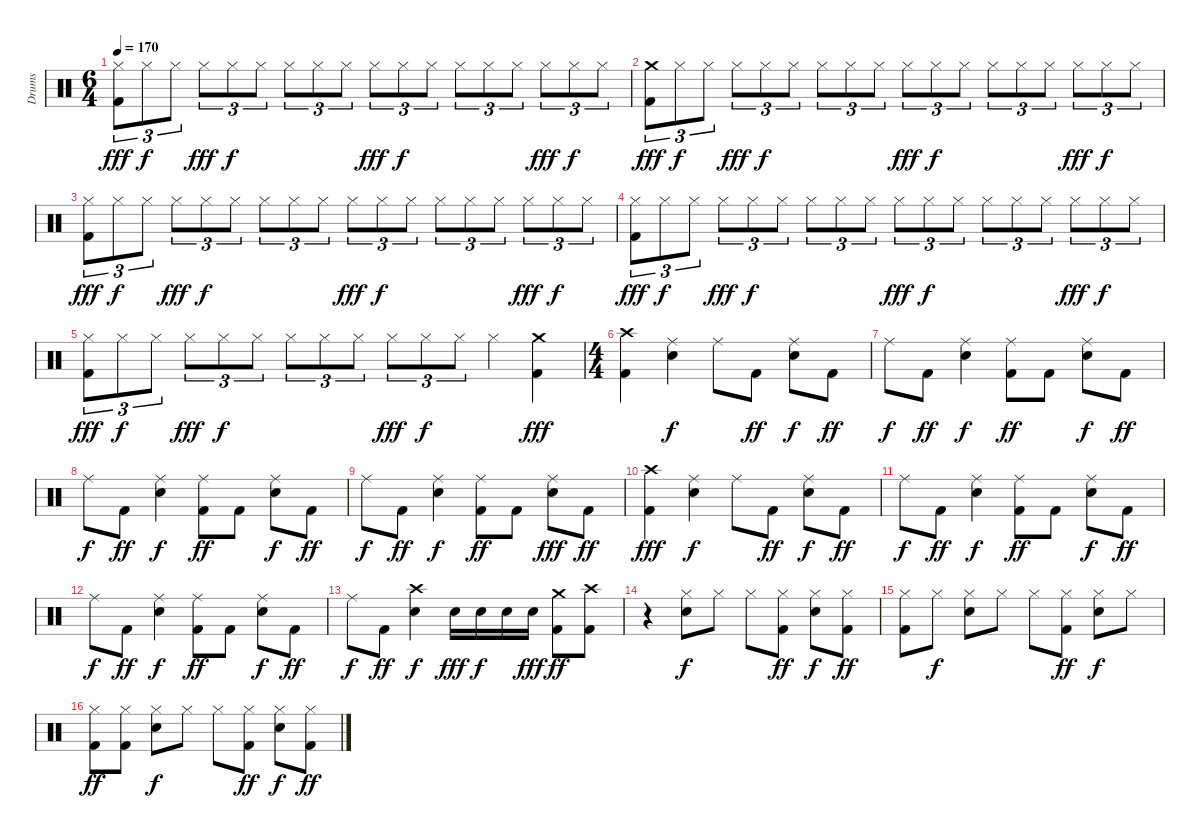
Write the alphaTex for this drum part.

\track ("Drums" "Drums") {instrument percussion}
\staff {score}
\articulation defaults
\ts (6 4)
\tempo 170
\clef neutral
\ks c
("Kick (hit) 2" "Hi-Hat (closed)").8{tu (3 2) dy fff} "Hi-Hat (closed)".8{tu (3 2) dy f} "Hi-Hat (closed)".8{tu (3 2)} "Hi-Hat (closed)".8{tu (3 2) dy fff} "Hi-Hat (closed)".8{tu (3 2) dy f} "Hi-Hat (closed)".8{tu (3 2)} "Hi-Hat (closed)".8{tu (3 2)} "Hi-Hat (closed)".8{tu (3 2)} "Hi-Hat (closed)".8{tu (3 2)} "Hi-Hat (closed)".8{tu (3 2) dy fff} "Hi-Hat (closed)".8{tu (3 2) dy f} "Hi-Hat (closed)".8{tu (3 2)} "Hi-Hat (closed)".8{tu (3 2)} "Hi-Hat (closed)".8{tu (3 2)} "Hi-Hat (closed)".8{tu (3 2)} "Hi-Hat (closed)".8{tu (3 2) dy fff} "Hi-Hat (closed)".8{tu (3 2) dy f} "Hi-Hat (closed)".8{tu (3 2)} |
("Kick (hit) 2" "Crash medium (hit)").8{tu (3 2) dy fff} "Hi-Hat (closed)".8{tu (3 2) dy f} "Hi-Hat (closed)".8{tu (3 2)} "Hi-Hat (closed)".8{tu (3 2) dy fff} "Hi-Hat (closed)".8{tu (3 2) dy f} "Hi-Hat (closed)".8{tu (3 2)} "Hi-Hat (closed)".8{tu (3 2)} "Hi-Hat (closed)".8{tu (3 2)} "Hi-Hat (closed)".8{tu (3 2)} "Hi-Hat (closed)".8{tu (3 2) dy fff} "Hi-Hat (closed)".8{tu (3 2) dy f} "Hi-Hat (closed)".8{tu (3 2)} "Hi-Hat (closed)".8{tu (3 2)} "Hi-Hat (closed)".8{tu (3 2)} "Hi-Hat (closed)".8{tu (3 2)} "Hi-Hat (closed)".8{tu (3 2) dy fff} "Hi-Hat (closed)".8{tu (3 2) dy f} "Hi-Hat (closed)".8{tu (3 2)} |
("Kick (hit) 2" "Hi-Hat (closed)").8{tu (3 2) dy fff} "Hi-Hat (closed)".8{tu (3 2) dy f} "Hi-Hat (closed)".8{tu (3 2)} "Hi-Hat (closed)".8{tu (3 2) dy fff} "Hi-Hat (closed)".8{tu (3 2) dy f} "Hi-Hat (closed)".8{tu (3 2)} "Hi-Hat (closed)".8{tu (3 2)} "Hi-Hat (closed)".8{tu (3 2)} "Hi-Hat (closed)".8{tu (3 2)} "Hi-Hat (closed)".8{tu (3 2) dy fff} "Hi-Hat (closed)".8{tu (3 2) dy f} "Hi-Hat (closed)".8{tu (3 2)} "Hi-Hat (closed)".8{tu (3 2)} "Hi-Hat (closed)".8{tu (3 2)} "Hi-Hat (closed)".8{tu (3 2)} "Hi-Hat (closed)".8{tu (3 2) dy fff} "Hi-Hat (closed)".8{tu (3 2) dy f} "Hi-Hat (closed)".8{tu (3 2)} |
("Kick (hit) 2" "Hi-Hat (closed)").8{tu (3 2) dy fff} "Hi-Hat (closed)".8{tu (3 2) dy f} "Hi-Hat (closed)".8{tu (3 2)} "Hi-Hat (closed)".8{tu (3 2) dy fff} "Hi-Hat (closed)".8{tu (3 2) dy f} "Hi-Hat (closed)".8{tu (3 2)} "Hi-Hat (closed)".8{tu (3 2)} "Hi-Hat (closed)".8{tu (3 2)} "Hi-Hat (closed)".8{tu (3 2)} "Hi-Hat (closed)".8{tu (3 2) dy fff} "Hi-Hat (closed)".8{tu (3 2) dy f} "Hi-Hat (closed)".8{tu (3 2)} "Hi-Hat (closed)".8{tu (3 2)} "Hi-Hat (closed)".8{tu (3 2)} "Hi-Hat (closed)".8{tu (3 2)} "Hi-Hat (closed)".8{tu (3 2) dy fff} "Hi-Hat (closed)".8{tu (3 2) dy f} "Hi-Hat (closed)".8{tu (3 2)} |
("Kick (hit) 2" "Hi-Hat (closed)").8{tu (3 2) dy fff} "Hi-Hat (closed)".8{tu (3 2) dy f} "Hi-Hat (closed)".8{tu (3 2)} "Hi-Hat (closed)".8{tu (3 2) dy fff} "Hi-Hat (closed)".8{tu (3 2) dy f} "Hi-Hat (closed)".8{tu (3 2)} "Hi-Hat (closed)".8{tu (3 2)} "Hi-Hat (closed)".8{tu (3 2)} "Hi-Hat (closed)".8{tu (3 2)} "Hi-Hat (closed)".8{tu (3 2) dy fff} "Hi-Hat (closed)".8{tu (3 2) dy f} "Hi-Hat (closed)".8{tu (3 2)} "Hi-Hat (closed)".4 ("Crash medium (hit)" "Kick (hit) 2").4{dy fff} |
\ts (4 4)
("Crash high (hit)" "Kick (hit) 2").4 ("Ride (middle)" "Snare (hit) 2").4{dy f} "Ride (middle)".8 "Kick (hit) 2".8{dy ff} ("Ride (middle)" "Snare (hit) 2").8{dy f} "Kick (hit) 2".8{dy ff} |
"Ride (middle)".8{dy f} "Kick (hit) 2".8{dy ff} ("Snare (hit) 2" "Ride (middle)").4{dy f} ("Kick (hit) 2" "Ride (middle)").8{dy ff} "Kick (hit) 2".8 ("Snare (hit) 2" "Ride (middle)").8{dy f} "Kick (hit) 2".8{dy ff} |
"Ride (middle)".8{dy f} "Kick (hit) 2".8{dy ff} ("Snare (hit) 2" "Ride (middle)").4{dy f} ("Kick (hit) 2" "Ride (middle)").8{dy ff} "Kick (hit) 2".8 ("Snare (hit) 2" "Ride (middle)").8{dy f} "Kick (hit) 2".8{dy ff} |
"Ride (middle)".8{dy f} "Kick (hit) 2".8{dy ff} ("Snare (hit) 2" "Ride (middle)").4{dy f} ("Kick (hit) 2" "Ride (middle)").8{dy ff} "Kick (hit) 2".8 ("Snare (hit) 2" "Ride (middle)").8{dy fff} "Kick (hit) 2".8{dy ff} |
("Crash high (hit)" "Kick (hit) 2").4{dy fff} ("Ride (middle)" "Snare (hit) 2").4{dy f} "Ride (middle)".8 "Kick (hit) 2".8{dy ff} ("Ride (middle)" "Snare (hit) 2").8{dy f} "Kick (hit) 2".8{dy ff} |
"Ride (middle)".8{dy f} "Kick (hit) 2".8{dy ff} ("Snare (hit) 2" "Ride (middle)").4{dy f} ("Kick (hit) 2" "Ride (middle)").8{dy ff} "Kick (hit) 2".8 ("Snare (hit) 2" "Ride (middle)").8{dy f} "Kick (hit) 2".8{dy ff} |
"Ride (middle)".8{dy f} "Kick (hit) 2".8{dy ff} ("Snare (hit) 2" "Ride (middle)").4{dy f} ("Kick (hit) 2" "Ride (middle)").8{dy ff} "Kick (hit) 2".8 ("Snare (hit) 2" "Ride (middle)").8{dy f} "Kick (hit) 2".8{dy ff} |
"Ride (middle)".8{dy f} "Kick (hit) 2".8{dy ff} ("Snare (hit) 2" "Crash high (hit)").4{dy f} "Snare (hit) 2".16{dy fff} "Snare (hit) 2".16{dy f} "Snare (hit) 2".16 "Snare (hit) 2".16{dy fff} ("Crash medium (hit)" "Kick (hit) 2").8{dy ff} ("Crash high (hit)" "Kick (hit) 2").8 |
r.4 ("Hi-Hat (closed)" "Snare (hit) 2").8{dy f} "Hi-Hat (closed)".8 "Hi-Hat (closed)".8 ("Hi-Hat (closed)" "Kick (hit) 2").8{dy ff} ("Hi-Hat (closed)" "Snare (hit) 2").8{dy f} ("Hi-Hat (closed)" "Kick (hit) 2").8{dy ff} |
("Kick (hit) 2" "Hi-Hat (closed)").8 "Hi-Hat (closed)".8{dy f} ("Snare (hit) 2" "Hi-Hat (closed)").8 "Hi-Hat (closed)".8 "Hi-Hat (closed)".8 ("Kick (hit) 2" "Hi-Hat (closed)").8{dy ff} ("Snare (hit) 2" "Hi-Hat (closed)").8{dy f} "Hi-Hat (closed)".8 |
("Hi-Hat (closed)" "Kick (hit) 2").8{dy ff} ("Hi-Hat (closed)" "Kick (hit) 2").8 ("Hi-Hat (closed)" "Snare (hit) 2").8{dy f} "Hi-Hat (closed)".8 "Hi-Hat (closed)".8 ("Hi-Hat (closed)" "Kick (hit) 2").8{dy ff} ("Hi-Hat (closed)" "Snare (hit) 2").8{dy f} ("Hi-Hat (closed)" "Kick (hit) 2").8{dy ff}
